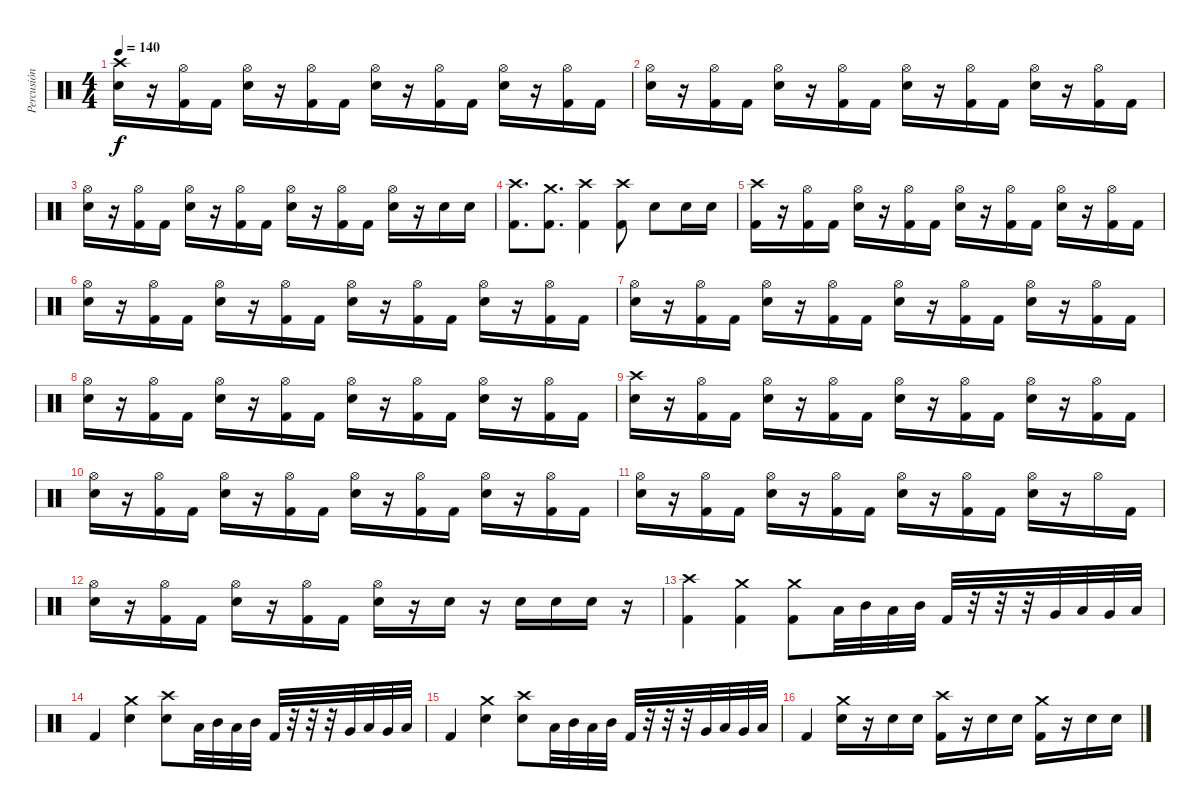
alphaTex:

\track ("Percusión" "Percusión") {instrument percussion}
\staff {score}
\articulation defaults
\ts (4 4)
\tempo 140
\clef neutral
\ks c
("Crash high (hit)" "Electric Snare (hit)").16{dy f} r.16 ("Hi-Hat (open)" "Kick (hit) 2").16 "Kick (hit) 2".16 ("Hi-Hat (open)" "Electric Snare (hit)").16 r.16 ("Hi-Hat (open)" "Kick (hit) 2").16 "Kick (hit) 2".16 ("Hi-Hat (open)" "Electric Snare (hit)").16 r.16 ("Hi-Hat (open)" "Kick (hit) 2").16 "Kick (hit) 2".16 ("Hi-Hat (open)" "Electric Snare (hit)").16 r.16 ("Hi-Hat (open)" "Kick (hit) 2").16 "Kick (hit) 2".16 |
("Hi-Hat (open)" "Electric Snare (hit)").16 r.16 ("Hi-Hat (open)" "Kick (hit) 2").16 "Kick (hit) 2".16 ("Hi-Hat (open)" "Electric Snare (hit)").16 r.16 ("Hi-Hat (open)" "Kick (hit) 2").16 "Kick (hit) 2".16 ("Hi-Hat (open)" "Electric Snare (hit)").16 r.16 ("Hi-Hat (open)" "Kick (hit) 2").16 "Kick (hit) 2".16 ("Hi-Hat (open)" "Electric Snare (hit)").16 r.16 ("Hi-Hat (open)" "Kick (hit) 2").16 "Kick (hit) 2".16 |
("Hi-Hat (open)" "Electric Snare (hit)").16 r.16 ("Hi-Hat (open)" "Kick (hit) 2").16 "Kick (hit) 2".16 ("Hi-Hat (open)" "Electric Snare (hit)").16 r.16 ("Hi-Hat (open)" "Kick (hit) 2").16 "Kick (hit) 2".16 ("Hi-Hat (open)" "Electric Snare (hit)").16 r.16 ("Hi-Hat (open)" "Kick (hit) 2").16 "Kick (hit) 2".16 ("Hi-Hat (open)" "Electric Snare (hit)").16 r.16 "Electric Snare (hit)".16 "Electric Snare (hit)".16 |
("Crash high (hit)" "Kick (hit) 2").8{d} ("Crash medium (hit)" "Kick (hit) 2").8{d} ("Crash high (hit)" "Kick (hit) 2").4 ("Crash high (hit)" "Kick (hit) 2").8 "Electric Snare (hit)".8 "Electric Snare (hit)".16 "Electric Snare (hit)".16 |
("Crash high (hit)" "Kick (hit) 2").16 r.16 ("Hi-Hat (open)" "Kick (hit) 2").16 "Kick (hit) 2".16 ("Hi-Hat (open)" "Electric Snare (hit)").16 r.16 ("Hi-Hat (open)" "Kick (hit) 2").16 "Kick (hit) 2".16 ("Hi-Hat (open)" "Electric Snare (hit)").16 r.16 ("Hi-Hat (open)" "Kick (hit) 2").16 "Kick (hit) 2".16 ("Hi-Hat (open)" "Electric Snare (hit)").16 r.16 ("Hi-Hat (open)" "Kick (hit) 2").16 "Kick (hit) 2".16 |
("Hi-Hat (open)" "Electric Snare (hit)").16 r.16 ("Hi-Hat (open)" "Kick (hit) 2").16 "Kick (hit) 2".16 ("Hi-Hat (open)" "Electric Snare (hit)").16 r.16 ("Hi-Hat (open)" "Kick (hit) 2").16 "Kick (hit) 2".16 ("Hi-Hat (open)" "Electric Snare (hit)").16 r.16 ("Hi-Hat (open)" "Kick (hit) 2").16 "Kick (hit) 2".16 ("Hi-Hat (open)" "Electric Snare (hit)").16 r.16 ("Hi-Hat (open)" "Kick (hit) 2").16 "Kick (hit) 2".16 |
("Hi-Hat (open)" "Electric Snare (hit)").16 r.16 ("Hi-Hat (open)" "Kick (hit) 2").16 "Kick (hit) 2".16 ("Hi-Hat (open)" "Electric Snare (hit)").16 r.16 ("Hi-Hat (open)" "Kick (hit) 2").16 "Kick (hit) 2".16 ("Hi-Hat (open)" "Electric Snare (hit)").16 r.16 ("Hi-Hat (open)" "Kick (hit) 2").16 "Kick (hit) 2".16 ("Hi-Hat (open)" "Electric Snare (hit)").16 r.16 ("Hi-Hat (open)" "Kick (hit) 2").16 "Kick (hit) 2".16 |
("Hi-Hat (open)" "Electric Snare (hit)").16 r.16 ("Hi-Hat (open)" "Kick (hit) 2").16 "Kick (hit) 2".16 ("Hi-Hat (open)" "Electric Snare (hit)").16 r.16 ("Hi-Hat (open)" "Kick (hit) 2").16 "Kick (hit) 2".16 ("Hi-Hat (open)" "Electric Snare (hit)").16 r.16 ("Hi-Hat (open)" "Kick (hit) 2").16 "Kick (hit) 2".16 ("Hi-Hat (open)" "Electric Snare (hit)").16 r.16 ("Hi-Hat (open)" "Kick (hit) 2").16 "Kick (hit) 2".16 |
("Crash high (hit)" "Electric Snare (hit)").16 r.16 ("Hi-Hat (open)" "Kick (hit) 2").16 "Kick (hit) 2".16 ("Hi-Hat (open)" "Electric Snare (hit)").16 r.16 ("Hi-Hat (open)" "Kick (hit) 2").16 "Kick (hit) 2".16 ("Hi-Hat (open)" "Electric Snare (hit)").16 r.16 ("Hi-Hat (open)" "Kick (hit) 2").16 "Kick (hit) 2".16 ("Hi-Hat (open)" "Electric Snare (hit)").16 r.16 ("Hi-Hat (open)" "Kick (hit) 2").16 "Kick (hit) 2".16 |
("Hi-Hat (open)" "Electric Snare (hit)").16 r.16 ("Hi-Hat (open)" "Kick (hit) 2").16 "Kick (hit) 2".16 ("Hi-Hat (open)" "Electric Snare (hit)").16 r.16 ("Hi-Hat (open)" "Kick (hit) 2").16 "Kick (hit) 2".16 ("Hi-Hat (open)" "Electric Snare (hit)").16 r.16 ("Hi-Hat (open)" "Kick (hit) 2").16 "Kick (hit) 2".16 ("Hi-Hat (open)" "Electric Snare (hit)").16 r.16 ("Hi-Hat (open)" "Kick (hit) 2").16 "Kick (hit) 2".16 |
("Hi-Hat (open)" "Electric Snare (hit)").16 r.16 ("Hi-Hat (open)" "Kick (hit) 2").16 "Kick (hit) 2".16 ("Hi-Hat (open)" "Electric Snare (hit)").16 r.16 ("Hi-Hat (open)" "Kick (hit) 2").16 "Kick (hit) 2".16 ("Hi-Hat (open)" "Electric Snare (hit)").16 r.16 ("Hi-Hat (open)" "Kick (hit) 2").16 "Kick (hit) 2".16 ("Hi-Hat (open)" "Electric Snare (hit)").16 r.16 "Hi-Hat (open)".16 "Kick (hit) 2".16 |
("Hi-Hat (open)" "Electric Snare (hit)").16 r.16 ("Hi-Hat (open)" "Kick (hit) 2").16 "Kick (hit) 2".16 ("Hi-Hat (open)" "Electric Snare (hit)").16 r.16 ("Hi-Hat (open)" "Kick (hit) 2").16 "Kick (hit) 2".16 ("Hi-Hat (open)" "Electric Snare (hit)").16 r.16 "Electric Snare (hit)".16 r.16 "Electric Snare (hit)".16 "Electric Snare (hit)".16 "Electric Snare (hit)".16 r.16 |
("Crash high (hit)" "Kick (hit) 2").4 ("Crash medium (hit)" "Kick (hit) 2").4 ("Crash medium (hit)" "Kick (hit) 2").8 "Low Tom (hit)".32 "Mid Tom (hit)".32 "Low Tom (hit)".32 "Mid Tom (hit)".32 "Kick (hit) 2".32 r.32 r.32 r.32 "Very Low Tom (hit)".32 "Low Tom (hit)".32 "Very Low Tom (hit)".32 "Low Tom (hit)".32 |
"Kick (hit) 2".4 ("Crash medium (hit)" "Electric Snare (hit)").4 ("Crash high (hit)" "Electric Snare (hit)").8 "Low Tom (hit)".32 "Mid Tom (hit)".32 "Low Tom (hit)".32 "Mid Tom (hit)".32 "Kick (hit) 2".32 r.32 r.32 r.32 "Very Low Tom (hit)".32 "Low Tom (hit)".32 "Very Low Tom (hit)".32 "Low Tom (hit)".32 |
"Kick (hit) 2".4 ("Crash medium (hit)" "Electric Snare (hit)").4 ("Crash high (hit)" "Electric Snare (hit)").8 "Low Tom (hit)".32 "Mid Tom (hit)".32 "Low Tom (hit)".32 "Mid Tom (hit)".32 "Kick (hit) 2".32 r.32 r.32 r.32 "Very Low Tom (hit)".32 "Low Tom (hit)".32 "Very Low Tom (hit)".32 "Low Tom (hit)".32 |
"Kick (hit) 2".4 ("Crash medium (hit)" "Electric Snare (hit)").16 r.16 "Electric Snare (hit)".16 "Electric Snare (hit)".16 ("Crash high (hit)" "Kick (hit) 2").16 r.16 "Electric Snare (hit)".16 "Electric Snare (hit)".16 ("Crash medium (hit)" "Kick (hit) 2").16 r.16 "Electric Snare (hit)".16 "Electric Snare (hit)".16
